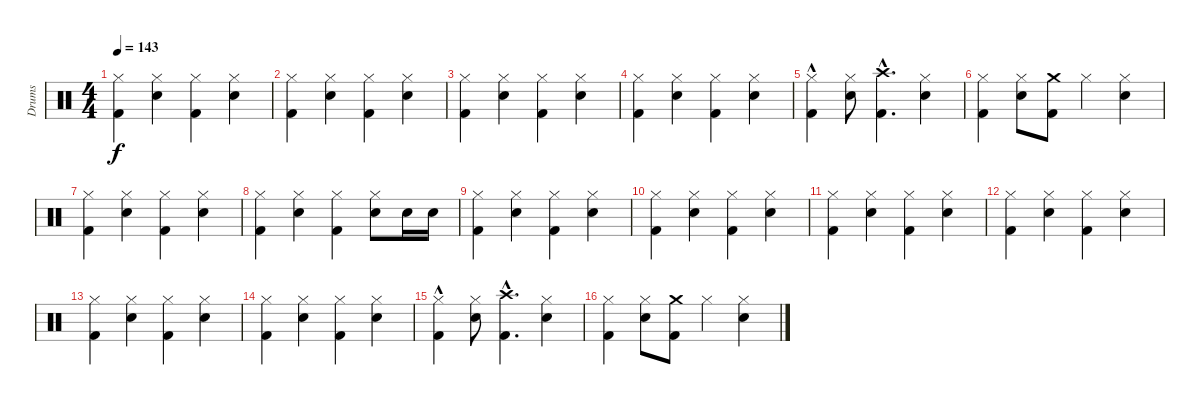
\track ("Drums" "Drums") {instrument percussion}
\staff {score}
\articulation defaults
\ts (4 4)
\tempo 143
\clef neutral
\ks c
("Hi-Hat (closed)" "Kick (hit) 2").4{dy f} ("Hi-Hat (closed)" "Electric Snare (hit)").4 ("Hi-Hat (closed)" "Kick (hit) 2").4 ("Hi-Hat (closed)" "Electric Snare (hit)").4 |
("Hi-Hat (closed)" "Kick (hit) 2").4 ("Hi-Hat (closed)" "Electric Snare (hit)").4 ("Hi-Hat (closed)" "Kick (hit) 2").4 ("Hi-Hat (closed)" "Electric Snare (hit)").4 |
("Hi-Hat (closed)" "Kick (hit) 2").4 ("Hi-Hat (closed)" "Electric Snare (hit)").4 ("Hi-Hat (closed)" "Kick (hit) 2").4 ("Hi-Hat (closed)" "Electric Snare (hit)").4 |
("Hi-Hat (closed)" "Kick (hit) 2").4 ("Hi-Hat (closed)" "Electric Snare (hit)").4 ("Hi-Hat (closed)" "Kick (hit) 2").4 ("Hi-Hat (closed)" "Electric Snare (hit)").4 |
("Hi-Hat (closed)"{hac} "Kick (hit) 2").4 ("Hi-Hat (closed)" "Electric Snare (hit)").8 ("Crash high (hit)"{hac} "Kick (hit) 2"{hac}).4{d} ("Hi-Hat (closed)" "Electric Snare (hit)").4 |
("Hi-Hat (closed)" "Kick (hit) 2").4 ("Hi-Hat (closed)" "Electric Snare (hit)").8 ("Crash medium (hit)" "Kick (hit) 2").8 "Hi-Hat (closed)".4 ("Hi-Hat (closed)" "Electric Snare (hit)").4 |
("Hi-Hat (closed)" "Kick (hit) 2").4 ("Hi-Hat (closed)" "Electric Snare (hit)").4 ("Hi-Hat (closed)" "Kick (hit) 2").4 ("Hi-Hat (closed)" "Electric Snare (hit)").4 |
("Hi-Hat (closed)" "Kick (hit) 2").4 ("Hi-Hat (closed)" "Electric Snare (hit)").4 ("Hi-Hat (closed)" "Kick (hit) 2").4 ("Hi-Hat (closed)" "Electric Snare (hit)").8 "Electric Snare (hit)".16 "Electric Snare (hit)".16 |
("Hi-Hat (closed)" "Kick (hit) 2").4 ("Hi-Hat (closed)" "Electric Snare (hit)").4 ("Hi-Hat (closed)" "Kick (hit) 2").4 ("Hi-Hat (closed)" "Electric Snare (hit)").4 |
("Hi-Hat (closed)" "Kick (hit) 2").4 ("Hi-Hat (closed)" "Electric Snare (hit)").4 ("Hi-Hat (closed)" "Kick (hit) 2").4 ("Hi-Hat (closed)" "Electric Snare (hit)").4 |
("Hi-Hat (closed)" "Kick (hit) 2").4 ("Hi-Hat (closed)" "Electric Snare (hit)").4 ("Hi-Hat (closed)" "Kick (hit) 2").4 ("Hi-Hat (closed)" "Electric Snare (hit)").4 |
("Hi-Hat (closed)" "Kick (hit) 2").4 ("Hi-Hat (closed)" "Electric Snare (hit)").4 ("Hi-Hat (closed)" "Kick (hit) 2").4 ("Hi-Hat (closed)" "Electric Snare (hit)").4 |
("Hi-Hat (closed)" "Kick (hit) 2").4 ("Hi-Hat (closed)" "Electric Snare (hit)").4 ("Hi-Hat (closed)" "Kick (hit) 2").4 ("Hi-Hat (closed)" "Electric Snare (hit)").4 |
("Hi-Hat (closed)" "Kick (hit) 2").4 ("Hi-Hat (closed)" "Electric Snare (hit)").4 ("Hi-Hat (closed)" "Kick (hit) 2").4 ("Hi-Hat (closed)" "Electric Snare (hit)").4 |
("Hi-Hat (closed)"{hac} "Kick (hit) 2").4 ("Hi-Hat (closed)" "Electric Snare (hit)").8 ("Crash high (hit)"{hac} "Kick (hit) 2"{hac}).4{d} ("Hi-Hat (closed)" "Electric Snare (hit)").4 |
("Hi-Hat (closed)" "Kick (hit) 2").4 ("Hi-Hat (closed)" "Electric Snare (hit)").8 ("Crash medium (hit)" "Kick (hit) 2").8 "Hi-Hat (closed)".4 ("Hi-Hat (closed)" "Electric Snare (hit)").4
